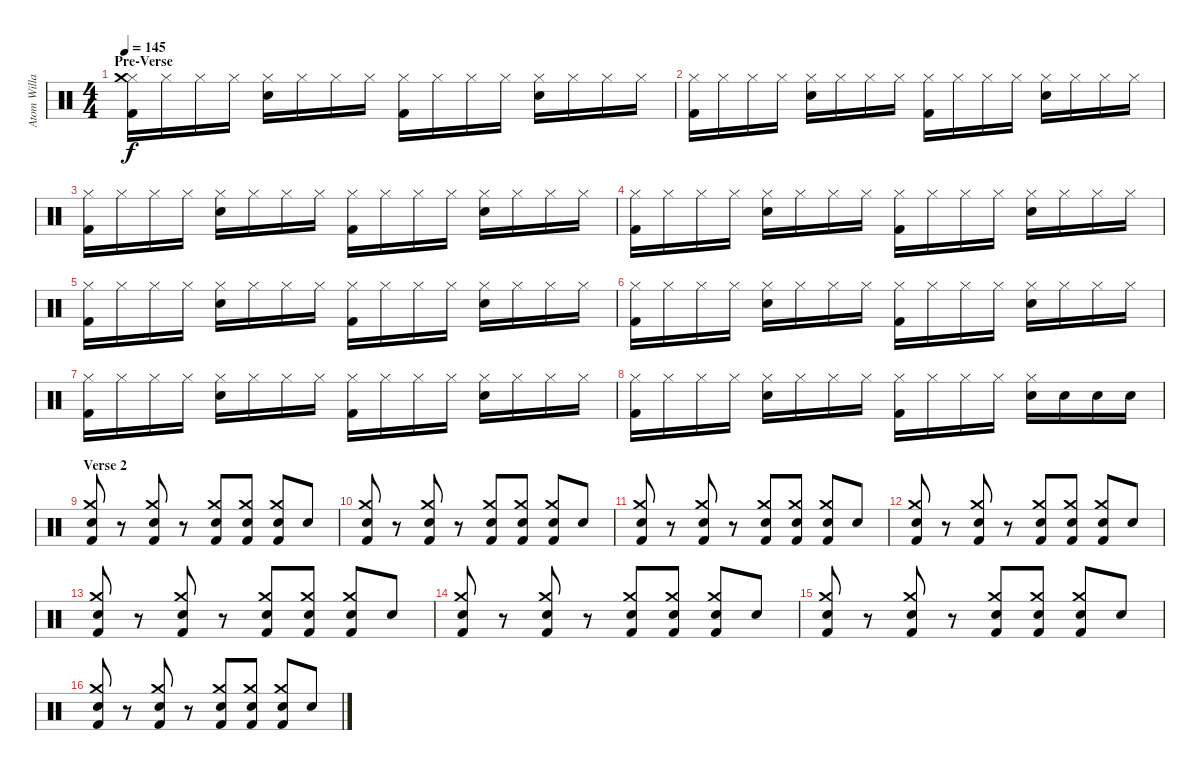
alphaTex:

\track ("Atom Willard (Drums)" "Atom Willa") {instrument percussion}
\staff {score}
\articulation defaults
\ts (4 4)
\section ("" "Pre-Verse")
\tempo 145
\clef neutral
\ks c
("Hi-Hat (closed)" "Kick (hit) 2" "Crash medium (hit)").16{dy f} "Hi-Hat (closed)".16 "Hi-Hat (closed)".16 "Hi-Hat (closed)".16 ("Hi-Hat (closed)" "Electric Snare (hit)").16 "Hi-Hat (closed)".16 "Hi-Hat (closed)".16 "Hi-Hat (closed)".16 ("Hi-Hat (closed)" "Kick (hit) 2").16 "Hi-Hat (closed)".16 "Hi-Hat (closed)".16 "Hi-Hat (closed)".16 ("Hi-Hat (closed)" "Electric Snare (hit)").16 "Hi-Hat (closed)".16 "Hi-Hat (closed)".16 "Hi-Hat (closed)".16 |
("Hi-Hat (closed)" "Kick (hit) 2").16 "Hi-Hat (closed)".16 "Hi-Hat (closed)".16 "Hi-Hat (closed)".16 ("Hi-Hat (closed)" "Electric Snare (hit)").16 "Hi-Hat (closed)".16 "Hi-Hat (closed)".16 "Hi-Hat (closed)".16 ("Hi-Hat (closed)" "Kick (hit) 2").16 "Hi-Hat (closed)".16 "Hi-Hat (closed)".16 "Hi-Hat (closed)".16 ("Hi-Hat (closed)" "Electric Snare (hit)").16 "Hi-Hat (closed)".16 "Hi-Hat (closed)".16 "Hi-Hat (closed)".16 |
("Hi-Hat (closed)" "Kick (hit) 2").16 "Hi-Hat (closed)".16 "Hi-Hat (closed)".16 "Hi-Hat (closed)".16 ("Hi-Hat (closed)" "Electric Snare (hit)").16 "Hi-Hat (closed)".16 "Hi-Hat (closed)".16 "Hi-Hat (closed)".16 ("Hi-Hat (closed)" "Kick (hit) 2").16 "Hi-Hat (closed)".16 "Hi-Hat (closed)".16 "Hi-Hat (closed)".16 ("Hi-Hat (closed)" "Electric Snare (hit)").16 "Hi-Hat (closed)".16 "Hi-Hat (closed)".16 "Hi-Hat (closed)".16 |
("Hi-Hat (closed)" "Kick (hit) 2").16 "Hi-Hat (closed)".16 "Hi-Hat (closed)".16 "Hi-Hat (closed)".16 ("Hi-Hat (closed)" "Electric Snare (hit)").16 "Hi-Hat (closed)".16 "Hi-Hat (closed)".16 "Hi-Hat (closed)".16 ("Hi-Hat (closed)" "Kick (hit) 2").16 "Hi-Hat (closed)".16 "Hi-Hat (closed)".16 "Hi-Hat (closed)".16 ("Hi-Hat (closed)" "Electric Snare (hit)").16 "Hi-Hat (closed)".16 "Hi-Hat (closed)".16 "Hi-Hat (closed)".16 |
("Hi-Hat (closed)" "Kick (hit) 2").16 "Hi-Hat (closed)".16 "Hi-Hat (closed)".16 "Hi-Hat (closed)".16 ("Hi-Hat (closed)" "Electric Snare (hit)").16 "Hi-Hat (closed)".16 "Hi-Hat (closed)".16 "Hi-Hat (closed)".16 ("Hi-Hat (closed)" "Kick (hit) 2").16 "Hi-Hat (closed)".16 "Hi-Hat (closed)".16 "Hi-Hat (closed)".16 ("Hi-Hat (closed)" "Electric Snare (hit)").16 "Hi-Hat (closed)".16 "Hi-Hat (closed)".16 "Hi-Hat (closed)".16 |
("Hi-Hat (closed)" "Kick (hit) 2").16 "Hi-Hat (closed)".16 "Hi-Hat (closed)".16 "Hi-Hat (closed)".16 ("Hi-Hat (closed)" "Electric Snare (hit)").16 "Hi-Hat (closed)".16 "Hi-Hat (closed)".16 "Hi-Hat (closed)".16 ("Hi-Hat (closed)" "Kick (hit) 2").16 "Hi-Hat (closed)".16 "Hi-Hat (closed)".16 "Hi-Hat (closed)".16 ("Hi-Hat (closed)" "Electric Snare (hit)").16 "Hi-Hat (closed)".16 "Hi-Hat (closed)".16 "Hi-Hat (closed)".16 |
("Hi-Hat (closed)" "Kick (hit) 2").16 "Hi-Hat (closed)".16 "Hi-Hat (closed)".16 "Hi-Hat (closed)".16 ("Hi-Hat (closed)" "Electric Snare (hit)").16 "Hi-Hat (closed)".16 "Hi-Hat (closed)".16 "Hi-Hat (closed)".16 ("Hi-Hat (closed)" "Kick (hit) 2").16 "Hi-Hat (closed)".16 "Hi-Hat (closed)".16 "Hi-Hat (closed)".16 ("Hi-Hat (closed)" "Electric Snare (hit)").16 "Hi-Hat (closed)".16 "Hi-Hat (closed)".16 "Hi-Hat (closed)".16 |
("Hi-Hat (closed)" "Kick (hit) 2").16 "Hi-Hat (closed)".16 "Hi-Hat (closed)".16 "Hi-Hat (closed)".16 ("Hi-Hat (closed)" "Electric Snare (hit)").16 "Hi-Hat (closed)".16 "Hi-Hat (closed)".16 "Hi-Hat (closed)".16 ("Hi-Hat (closed)" "Kick (hit) 2").16 "Hi-Hat (closed)".16 "Hi-Hat (closed)".16 "Hi-Hat (closed)".16 ("Hi-Hat (closed)" "Electric Snare (hit)").16 "Electric Snare (hit)".16 "Electric Snare (hit)".16 "Electric Snare (hit)".16 |
\section ("" "Verse 2")
("Crash medium (hit)" "Electric Snare (hit)" "Kick (hit) 2").8 r.8 ("Crash medium (hit)" "Electric Snare (hit)" "Kick (hit) 2").8 r.8 ("Crash medium (hit)" "Electric Snare (hit)" "Kick (hit) 2").8 ("Crash medium (hit)" "Electric Snare (hit)" "Kick (hit) 2").8 ("Crash medium (hit)" "Electric Snare (hit)" "Kick (hit) 2").8 "Snare (hit)".8 |
("Crash medium (hit)" "Electric Snare (hit)" "Kick (hit) 2").8 r.8 ("Crash medium (hit)" "Electric Snare (hit)" "Kick (hit) 2").8 r.8 ("Crash medium (hit)" "Electric Snare (hit)" "Kick (hit) 2").8 ("Crash medium (hit)" "Electric Snare (hit)" "Kick (hit) 2").8 ("Crash medium (hit)" "Electric Snare (hit)" "Kick (hit) 2").8 "Snare (hit)".8 |
("Crash medium (hit)" "Electric Snare (hit)" "Kick (hit) 2").8 r.8 ("Crash medium (hit)" "Electric Snare (hit)" "Kick (hit) 2").8 r.8 ("Crash medium (hit)" "Electric Snare (hit)" "Kick (hit) 2").8 ("Crash medium (hit)" "Electric Snare (hit)" "Kick (hit) 2").8 ("Crash medium (hit)" "Electric Snare (hit)" "Kick (hit) 2").8 "Snare (hit)".8 |
("Crash medium (hit)" "Electric Snare (hit)" "Kick (hit) 2").8 r.8 ("Crash medium (hit)" "Electric Snare (hit)" "Kick (hit) 2").8 r.8 ("Crash medium (hit)" "Electric Snare (hit)" "Kick (hit) 2").8 ("Crash medium (hit)" "Electric Snare (hit)" "Kick (hit) 2").8 ("Crash medium (hit)" "Electric Snare (hit)" "Kick (hit) 2").8 "Snare (hit)".8 |
("Crash medium (hit)" "Electric Snare (hit)" "Kick (hit) 2").8 r.8 ("Crash medium (hit)" "Electric Snare (hit)" "Kick (hit) 2").8 r.8 ("Crash medium (hit)" "Electric Snare (hit)" "Kick (hit) 2").8 ("Crash medium (hit)" "Electric Snare (hit)" "Kick (hit) 2").8 ("Crash medium (hit)" "Electric Snare (hit)" "Kick (hit) 2").8 "Snare (hit)".8 |
("Crash medium (hit)" "Electric Snare (hit)" "Kick (hit) 2").8 r.8 ("Crash medium (hit)" "Electric Snare (hit)" "Kick (hit) 2").8 r.8 ("Crash medium (hit)" "Electric Snare (hit)" "Kick (hit) 2").8 ("Crash medium (hit)" "Electric Snare (hit)" "Kick (hit) 2").8 ("Crash medium (hit)" "Electric Snare (hit)" "Kick (hit) 2").8 "Snare (hit)".8 |
("Crash medium (hit)" "Electric Snare (hit)" "Kick (hit) 2").8 r.8 ("Crash medium (hit)" "Electric Snare (hit)" "Kick (hit) 2").8 r.8 ("Crash medium (hit)" "Electric Snare (hit)" "Kick (hit) 2").8 ("Crash medium (hit)" "Electric Snare (hit)" "Kick (hit) 2").8 ("Crash medium (hit)" "Electric Snare (hit)" "Kick (hit) 2").8 "Snare (hit)".8 |
("Crash medium (hit)" "Electric Snare (hit)" "Kick (hit) 2").8 r.8 ("Crash medium (hit)" "Electric Snare (hit)" "Kick (hit) 2").8 r.8 ("Crash medium (hit)" "Electric Snare (hit)" "Kick (hit) 2").8 ("Crash medium (hit)" "Electric Snare (hit)" "Kick (hit) 2").8 ("Crash medium (hit)" "Electric Snare (hit)" "Kick (hit) 2").8 "Snare (hit)".8
